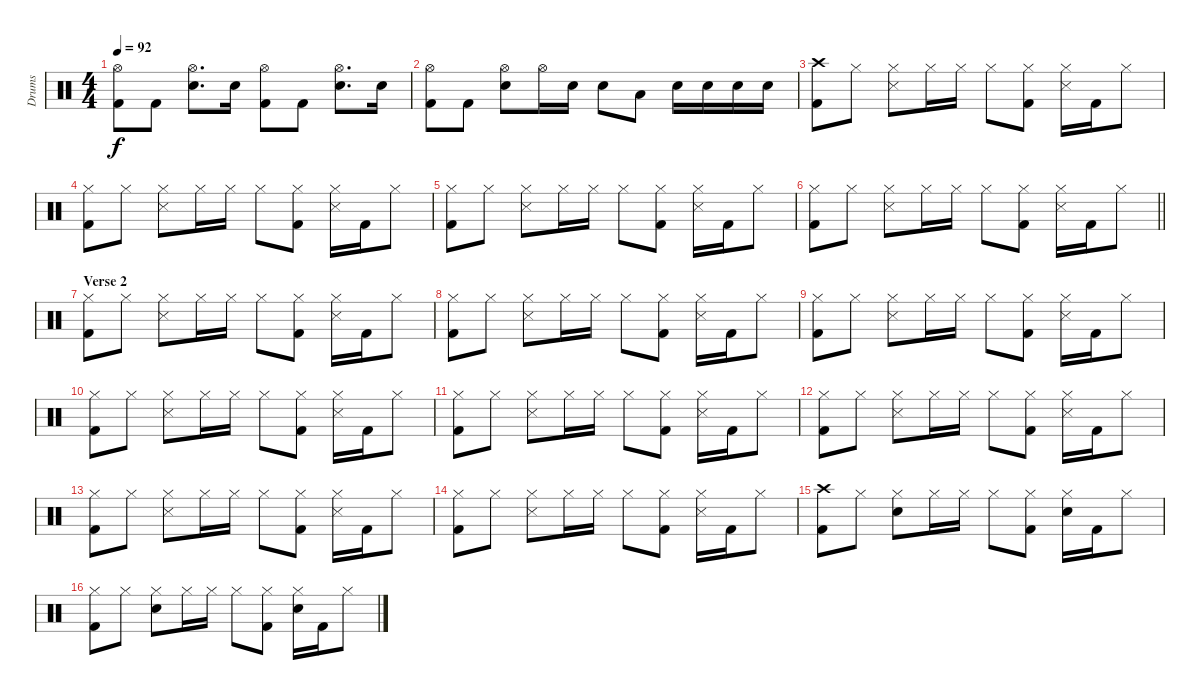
\track ("Drums" "Drums") {instrument percussion}
\staff {score}
\articulation defaults
\ts (4 4)
\tempo 92
\clef neutral
\ks c
("Hi-Hat (open)" "Kick (hit) 2").8{dy f} "Kick (hit) 2".8 ("Hi-Hat (open)" "Snare (hit) 2").8{d} "Snare (hit) 2".16 ("Hi-Hat (open)" "Kick (hit) 2").8 "Kick (hit) 2".8 ("Hi-Hat (open)" "Snare (hit) 2").8{d} "Snare (hit) 2".16 |
("Hi-Hat (open)" "Kick (hit) 2").8 "Kick (hit) 2".8 ("Hi-Hat (open)" "Snare (hit) 2").8 "Hi-Hat (open)".16 "Snare (hit) 2".16 "Snare (hit) 2".8 "Low Tom (hit)".8 "Snare (hit) 2".16 "Snare (hit) 2".16 "Snare (hit) 2".16 "Snare (hit) 2".16 |
("Crash high (hit)" "Kick (hit) 2").8 "Hi-Hat (closed)".8 ("Hi-Hat (closed)" "Snare (side stick) 3").8 "Hi-Hat (closed)".16 "Hi-Hat (closed)".16 "Hi-Hat (closed)".8 ("Hi-Hat (closed)" "Kick (hit) 2").8 ("Hi-Hat (closed)" "Snare (side stick) 3").16 "Kick (hit) 2".16 "Hi-Hat (closed)".8 |
("Hi-Hat (closed)" "Kick (hit) 2").8 "Hi-Hat (closed)".8 ("Hi-Hat (closed)" "Snare (side stick) 3").8 "Hi-Hat (closed)".16 "Hi-Hat (closed)".16 "Hi-Hat (closed)".8 ("Hi-Hat (closed)" "Kick (hit) 2").8 ("Hi-Hat (closed)" "Snare (side stick) 3").16 "Kick (hit) 2".16 "Hi-Hat (closed)".8 |
("Hi-Hat (closed)" "Kick (hit) 2").8 "Hi-Hat (closed)".8 ("Hi-Hat (closed)" "Snare (side stick) 3").8 "Hi-Hat (closed)".16 "Hi-Hat (closed)".16 "Hi-Hat (closed)".8 ("Hi-Hat (closed)" "Kick (hit) 2").8 ("Hi-Hat (closed)" "Snare (side stick) 3").16 "Kick (hit) 2".16 "Hi-Hat (closed)".8 |
\barLineRight lightlight
("Hi-Hat (closed)" "Kick (hit) 2").8 "Hi-Hat (closed)".8 ("Hi-Hat (closed)" "Snare (side stick) 3").8 "Hi-Hat (closed)".16 "Hi-Hat (closed)".16 "Hi-Hat (closed)".8 ("Hi-Hat (closed)" "Kick (hit) 2").8 ("Hi-Hat (closed)" "Snare (side stick) 3").16 "Kick (hit) 2".16 "Hi-Hat (closed)".8 |
\section ("" "Verse 2")
("Hi-Hat (closed)" "Kick (hit) 2").8 "Hi-Hat (closed)".8 ("Hi-Hat (closed)" "Snare (side stick) 3").8 "Hi-Hat (closed)".16 "Hi-Hat (closed)".16 "Hi-Hat (closed)".8 ("Hi-Hat (closed)" "Kick (hit) 2").8 ("Hi-Hat (closed)" "Snare (side stick) 3").16 "Kick (hit) 2".16 "Hi-Hat (closed)".8 |
("Hi-Hat (closed)" "Kick (hit) 2").8 "Hi-Hat (closed)".8 ("Hi-Hat (closed)" "Snare (side stick) 3").8 "Hi-Hat (closed)".16 "Hi-Hat (closed)".16 "Hi-Hat (closed)".8 ("Hi-Hat (closed)" "Kick (hit) 2").8 ("Hi-Hat (closed)" "Snare (side stick) 3").16 "Kick (hit) 2".16 "Hi-Hat (closed)".8 |
("Hi-Hat (closed)" "Kick (hit) 2").8 "Hi-Hat (closed)".8 ("Hi-Hat (closed)" "Snare (side stick) 3").8 "Hi-Hat (closed)".16 "Hi-Hat (closed)".16 "Hi-Hat (closed)".8 ("Hi-Hat (closed)" "Kick (hit) 2").8 ("Hi-Hat (closed)" "Snare (side stick) 3").16 "Kick (hit) 2".16 "Hi-Hat (closed)".8 |
("Hi-Hat (closed)" "Kick (hit) 2").8 "Hi-Hat (closed)".8 ("Hi-Hat (closed)" "Snare (side stick) 3").8 "Hi-Hat (closed)".16 "Hi-Hat (closed)".16 "Hi-Hat (closed)".8 ("Hi-Hat (closed)" "Kick (hit) 2").8 ("Hi-Hat (closed)" "Snare (side stick) 3").16 "Kick (hit) 2".16 "Hi-Hat (closed)".8 |
("Hi-Hat (closed)" "Kick (hit) 2").8 "Hi-Hat (closed)".8 ("Hi-Hat (closed)" "Snare (side stick) 3").8 "Hi-Hat (closed)".16 "Hi-Hat (closed)".16 "Hi-Hat (closed)".8 ("Hi-Hat (closed)" "Kick (hit) 2").8 ("Hi-Hat (closed)" "Snare (side stick) 3").16 "Kick (hit) 2".16 "Hi-Hat (closed)".8 |
("Hi-Hat (closed)" "Kick (hit) 2").8 "Hi-Hat (closed)".8 ("Hi-Hat (closed)" "Snare (side stick) 3").8 "Hi-Hat (closed)".16 "Hi-Hat (closed)".16 "Hi-Hat (closed)".8 ("Hi-Hat (closed)" "Kick (hit) 2").8 ("Hi-Hat (closed)" "Snare (side stick) 3").16 "Kick (hit) 2".16 "Hi-Hat (closed)".8 |
("Hi-Hat (closed)" "Kick (hit) 2").8 "Hi-Hat (closed)".8 ("Hi-Hat (closed)" "Snare (side stick) 3").8 "Hi-Hat (closed)".16 "Hi-Hat (closed)".16 "Hi-Hat (closed)".8 ("Hi-Hat (closed)" "Kick (hit) 2").8 ("Hi-Hat (closed)" "Snare (side stick) 3").16 "Kick (hit) 2".16 "Hi-Hat (closed)".8 |
("Hi-Hat (closed)" "Kick (hit) 2").8 "Hi-Hat (closed)".8 ("Hi-Hat (closed)" "Snare (side stick) 3").8 "Hi-Hat (closed)".16 "Hi-Hat (closed)".16 "Hi-Hat (closed)".8 ("Hi-Hat (closed)" "Kick (hit) 2").8 ("Hi-Hat (closed)" "Snare (side stick) 3").16 "Kick (hit) 2".16 "Hi-Hat (closed)".8 |
("Crash high (hit)" "Kick (hit) 2").8 "Hi-Hat (closed)".8 ("Hi-Hat (closed)" "Snare (hit) 2").8 "Hi-Hat (closed)".16 "Hi-Hat (closed)".16 "Hi-Hat (closed)".8 ("Hi-Hat (closed)" "Kick (hit) 2").8 ("Hi-Hat (closed)" "Snare (hit) 2").16 "Kick (hit) 2".16 "Hi-Hat (closed)".8 |
("Hi-Hat (closed)" "Kick (hit) 2").8 "Hi-Hat (closed)".8 ("Hi-Hat (closed)" "Snare (hit) 2").8 "Hi-Hat (closed)".16 "Hi-Hat (closed)".16 "Hi-Hat (closed)".8 ("Hi-Hat (closed)" "Kick (hit) 2").8 ("Hi-Hat (closed)" "Snare (hit) 2").16 "Kick (hit) 2".16 "Hi-Hat (closed)".8
